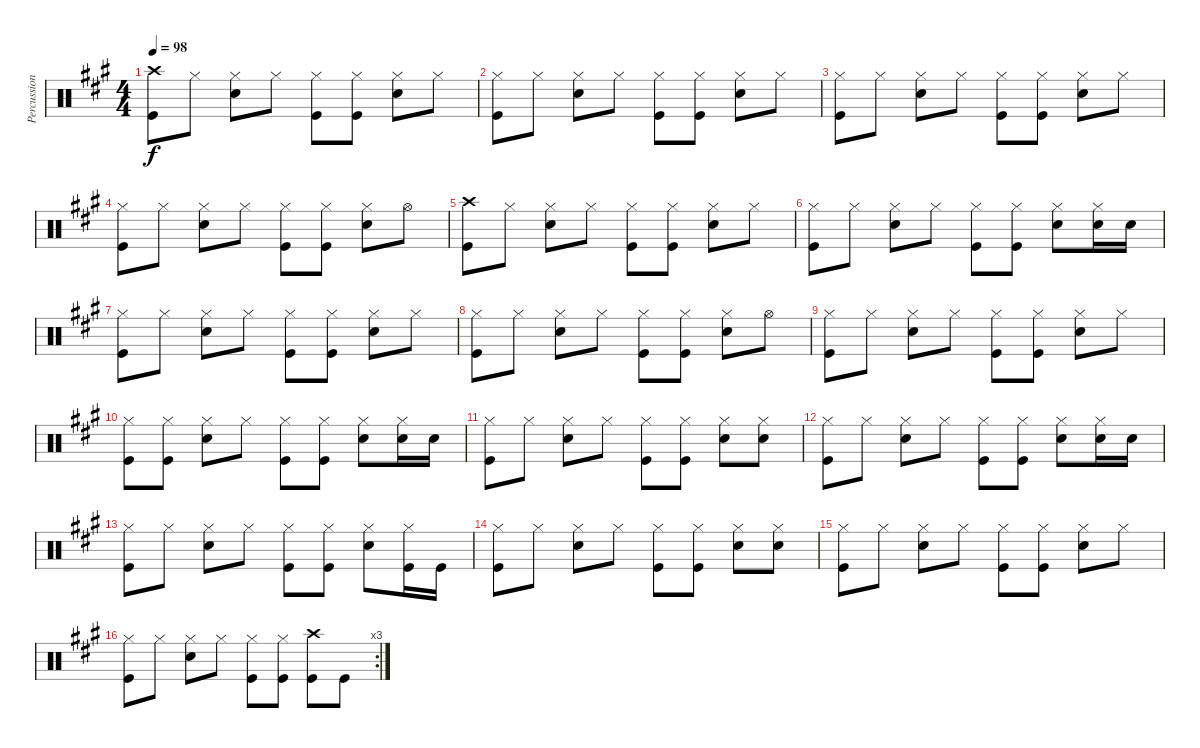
\track ("Percussions" "Percussion") {instrument percussion}
\staff {score}
\articulation defaults
\ts (4 4)
\tempo 98
\clef neutral
\ks a
("Crash high (hit)" "Kick (hit)").8{dy f} "Hi-Hat (closed)".8 ("Hi-Hat (closed)" "Snare (hit) 2").8 "Hi-Hat (closed)".8 ("Hi-Hat (closed)" "Kick (hit)").8 ("Hi-Hat (closed)" "Kick (hit)").8 ("Hi-Hat (closed)" "Snare (hit) 2").8 "Hi-Hat (closed)".8 |
("Hi-Hat (closed)" "Kick (hit)").8 "Hi-Hat (closed)".8 ("Hi-Hat (closed)" "Snare (hit) 2").8 "Hi-Hat (closed)".8 ("Hi-Hat (closed)" "Kick (hit)").8 ("Hi-Hat (closed)" "Kick (hit)").8 ("Hi-Hat (closed)" "Snare (hit) 2").8 "Hi-Hat (closed)".8 |
("Hi-Hat (closed)" "Kick (hit)").8 "Hi-Hat (closed)".8 ("Hi-Hat (closed)" "Snare (hit) 2").8 "Hi-Hat (closed)".8 ("Hi-Hat (closed)" "Kick (hit)").8 ("Hi-Hat (closed)" "Kick (hit)").8 ("Hi-Hat (closed)" "Snare (hit) 2").8 "Hi-Hat (closed)".8 |
("Hi-Hat (closed)" "Kick (hit)").8 "Hi-Hat (closed)".8 ("Hi-Hat (closed)" "Snare (hit) 2").8 "Hi-Hat (closed)".8 ("Hi-Hat (closed)" "Kick (hit)").8 ("Hi-Hat (closed)" "Kick (hit)").8 ("Hi-Hat (closed)" "Snare (hit) 2").8 "Hi-Hat (open)".8 |
("Crash high (hit)" "Kick (hit)").8 "Hi-Hat (closed)".8 ("Hi-Hat (closed)" "Snare (hit) 2").8 "Hi-Hat (closed)".8 ("Hi-Hat (closed)" "Kick (hit)").8 ("Hi-Hat (closed)" "Kick (hit)").8 ("Hi-Hat (closed)" "Snare (hit) 2").8 "Hi-Hat (closed)".8 |
("Hi-Hat (closed)" "Kick (hit)").8 "Hi-Hat (closed)".8 ("Hi-Hat (closed)" "Snare (hit) 2").8 "Hi-Hat (closed)".8 ("Hi-Hat (closed)" "Kick (hit)").8 ("Hi-Hat (closed)" "Kick (hit)").8 ("Hi-Hat (closed)" "Snare (hit) 2").8 ("Hi-Hat (closed)" "Snare (hit) 2").16 "Snare (hit) 2".16 |
("Hi-Hat (closed)" "Kick (hit)").8 "Hi-Hat (closed)".8 ("Hi-Hat (closed)" "Snare (hit) 2").8 "Hi-Hat (closed)".8 ("Hi-Hat (closed)" "Kick (hit)").8 ("Hi-Hat (closed)" "Kick (hit)").8 ("Hi-Hat (closed)" "Snare (hit) 2").8 "Hi-Hat (closed)".8 |
("Hi-Hat (closed)" "Kick (hit)").8 "Hi-Hat (closed)".8 ("Hi-Hat (closed)" "Snare (hit) 2").8 "Hi-Hat (closed)".8 ("Hi-Hat (closed)" "Kick (hit)").8 ("Hi-Hat (closed)" "Kick (hit)").8 ("Hi-Hat (closed)" "Snare (hit) 2").8 "Hi-Hat (open)".8 |
("Hi-Hat (closed)" "Kick (hit)").8 "Hi-Hat (closed)".8 ("Hi-Hat (closed)" "Snare (hit) 2").8 "Hi-Hat (closed)".8 ("Hi-Hat (closed)" "Kick (hit)").8 ("Hi-Hat (closed)" "Kick (hit)").8 ("Hi-Hat (closed)" "Snare (hit) 2").8 "Hi-Hat (closed)".8 |
("Hi-Hat (closed)" "Kick (hit)").8 ("Hi-Hat (closed)" "Kick (hit)").8 ("Hi-Hat (closed)" "Snare (hit) 2").8 "Hi-Hat (closed)".8 ("Hi-Hat (closed)" "Kick (hit)").8 ("Hi-Hat (closed)" "Kick (hit)").8 ("Hi-Hat (closed)" "Snare (hit) 2").8 ("Hi-Hat (closed)" "Snare (hit) 2").16 "Snare (hit) 2".16 |
("Hi-Hat (closed)" "Kick (hit)").8 "Hi-Hat (closed)".8 ("Hi-Hat (closed)" "Snare (hit) 2").8 "Hi-Hat (closed)".8 ("Hi-Hat (closed)" "Kick (hit)").8 ("Hi-Hat (closed)" "Kick (hit)").8 ("Hi-Hat (closed)" "Snare (hit) 2").8 ("Hi-Hat (closed)" "Snare (hit) 2").8 |
("Hi-Hat (closed)" "Kick (hit)").8 "Hi-Hat (closed)".8 ("Hi-Hat (closed)" "Snare (hit) 2").8 "Hi-Hat (closed)".8 ("Hi-Hat (closed)" "Kick (hit)").8 ("Hi-Hat (closed)" "Kick (hit)").8 ("Hi-Hat (closed)" "Snare (hit) 2").8 ("Hi-Hat (closed)" "Snare (hit) 2").16 "Snare (hit) 2".16 |
("Hi-Hat (closed)" "Kick (hit)").8 "Hi-Hat (closed)".8 ("Hi-Hat (closed)" "Snare (hit) 2").8 "Hi-Hat (closed)".8 ("Hi-Hat (closed)" "Kick (hit)").8 ("Hi-Hat (closed)" "Kick (hit)").8 ("Hi-Hat (closed)" "Snare (hit) 2").8 ("Hi-Hat (closed)" "Kick (hit)").16 "Kick (hit)".16 |
("Hi-Hat (closed)" "Kick (hit)").8 "Hi-Hat (closed)".8 ("Hi-Hat (closed)" "Snare (hit) 2").8 "Hi-Hat (closed)".8 ("Hi-Hat (closed)" "Kick (hit)").8 ("Hi-Hat (closed)" "Kick (hit)").8 ("Hi-Hat (closed)" "Snare (hit) 2").8 ("Hi-Hat (closed)" "Snare (hit) 2").8 |
("Hi-Hat (closed)" "Kick (hit)").8 "Hi-Hat (closed)".8 ("Hi-Hat (closed)" "Snare (hit) 2").8 "Hi-Hat (closed)".8 ("Hi-Hat (closed)" "Kick (hit)").8 ("Hi-Hat (closed)" "Kick (hit)").8 ("Hi-Hat (closed)" "Snare (hit) 2").8 "Hi-Hat (closed)".8 |
\rc 3
("Hi-Hat (closed)" "Kick (hit)").8 "Hi-Hat (closed)".8 ("Hi-Hat (closed)" "Snare (hit) 2").8 "Hi-Hat (closed)".8 ("Hi-Hat (closed)" "Kick (hit)").8 ("Hi-Hat (closed)" "Kick (hit)").8 ("Crash high (hit)" "Kick (hit)").8 "Kick (hit)".8
